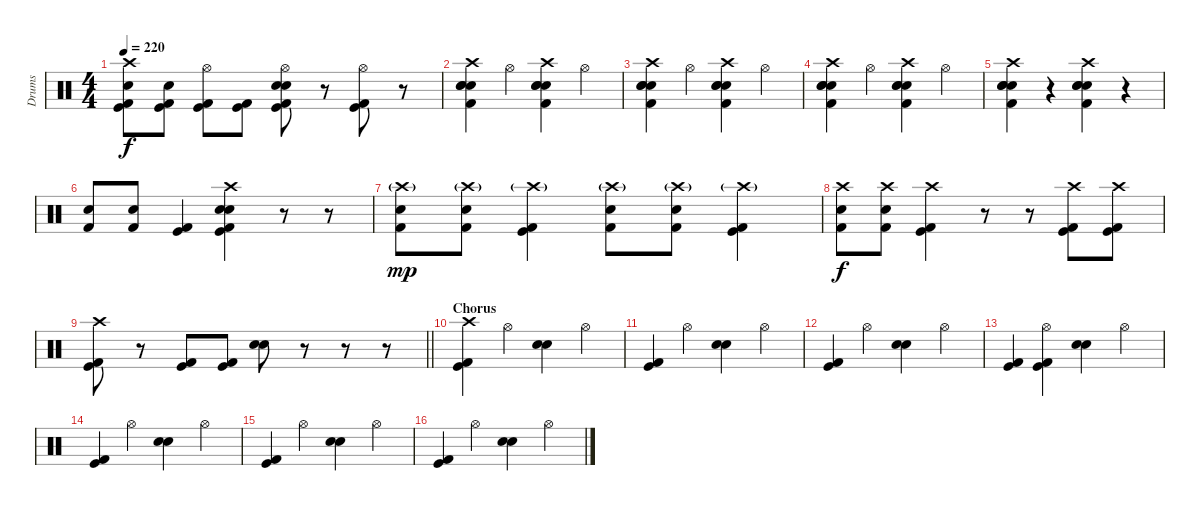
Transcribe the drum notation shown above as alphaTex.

\track ("Drums" "Drums") {instrument percussion}
\staff {score}
\articulation defaults
\ts (4 4)
\tempo 220
\clef neutral
\ks c
("Crash high (hit)" "Snare (hit) 2" "Kick (hit) 2" "Kick (hit)").8{dy f} ("Snare (hit) 2" "Kick (hit) 2" "Kick (hit)").8 ("Hi-Hat (open)" "Kick (hit) 2" "Kick (hit)").8 ("Kick (hit) 2" "Kick (hit)").8 ("Hi-Hat (open)" "Electric Snare (hit)" "Snare (hit) 2" "Kick (hit) 2" "Kick (hit)").8 r.8 ("Hi-Hat (open)" "Kick (hit) 2" "Kick (hit)").8 r.8 |
("Crash high (hit)" "Snare (hit) 2" "Electric Snare (hit)" "Kick (hit) 2" "Snare (hit)").4 "Hi-Hat (open)".4 ("Crash high (hit)" "Snare (hit) 2" "Electric Snare (hit)" "Kick (hit) 2" "Snare (hit)").4 "Hi-Hat (open)".4 |
("Crash high (hit)" "Snare (hit) 2" "Electric Snare (hit)" "Kick (hit) 2" "Snare (hit)").4 "Hi-Hat (open)".4 ("Crash high (hit)" "Snare (hit) 2" "Electric Snare (hit)" "Kick (hit) 2" "Snare (hit)").4 "Hi-Hat (open)".4 |
("Crash high (hit)" "Snare (hit) 2" "Electric Snare (hit)" "Kick (hit) 2" "Snare (hit)").4 "Hi-Hat (open)".4 ("Crash high (hit)" "Snare (hit) 2" "Electric Snare (hit)" "Kick (hit) 2" "Snare (hit)").4 "Hi-Hat (open)".4 |
("Crash high (hit)" "Snare (hit) 2" "Electric Snare (hit)" "Kick (hit) 2" "Snare (hit)").4 r.4 ("Crash high (hit)" "Snare (hit) 2" "Electric Snare (hit)" "Kick (hit) 2" "Snare (hit)").4 r.4 |
("Kick (hit) 2" "Snare (hit)").8 ("Kick (hit) 2" "Snare (hit)").8 ("Kick (hit) 2" "Kick (hit)").4 ("Crash high (hit)" "Snare (hit) 2" "Electric Snare (hit)" "Kick (hit) 2" "Kick (hit)").4 r.8 r.8 |
("Crash high (hit)"{g} "Kick (hit) 2" "Snare (hit)").8{dy mp} ("Crash high (hit)"{g} "Kick (hit) 2" "Snare (hit)").8 ("Crash high (hit)"{g} "Kick (hit) 2" "Kick (hit)").4 ("Crash high (hit)"{g} "Kick (hit) 2" "Snare (hit)").8 ("Crash high (hit)"{g} "Kick (hit) 2" "Snare (hit)").8 ("Crash high (hit)"{g} "Kick (hit) 2" "Kick (hit)").4 |
("Crash high (hit)" "Kick (hit) 2" "Snare (hit)").8{dy f} ("Crash high (hit)" "Kick (hit) 2" "Snare (hit)").8 ("Crash high (hit)" "Kick (hit) 2" "Kick (hit)").4 r.8 r.8 ("Crash high (hit)" "Kick (hit) 2" "Kick (hit)").8 ("Crash high (hit)" "Kick (hit) 2" "Kick (hit)").8 |
\barLineRight lightlight
("Crash high (hit)" "Kick (hit) 2" "Kick (hit)").8 r.8 ("Kick (hit) 2" "Kick (hit)").8 ("Kick (hit) 2" "Kick (hit)").8 ("Electric Snare (hit)" "Snare (hit) 2").8 r.8 r.8 r.8 |
\section ("" "Chorus")
("Crash high (hit)" "Kick (hit) 2" "Kick (hit)").4 "Hi-Hat (open)".4 ("Electric Snare (hit)" "Snare (hit) 2").4 "Hi-Hat (open)".4 |
("Kick (hit) 2" "Kick (hit)").4 "Hi-Hat (open)".4 ("Electric Snare (hit)" "Snare (hit) 2").4 "Hi-Hat (open)".4 |
("Kick (hit) 2" "Kick (hit)").4 "Hi-Hat (open)".4 ("Electric Snare (hit)" "Snare (hit) 2").4 "Hi-Hat (open)".4 |
("Kick (hit) 2" "Kick (hit)").4 ("Hi-Hat (open)" "Kick (hit) 2" "Kick (hit)").4 ("Electric Snare (hit)" "Snare (hit) 2").4 "Hi-Hat (open)".4 |
("Kick (hit) 2" "Kick (hit)").4 "Hi-Hat (open)".4 ("Electric Snare (hit)" "Snare (hit) 2").4 "Hi-Hat (open)".4 |
("Kick (hit) 2" "Kick (hit)").4 "Hi-Hat (open)".4 ("Electric Snare (hit)" "Snare (hit) 2").4 "Hi-Hat (open)".4 |
("Kick (hit) 2" "Kick (hit)").4 "Hi-Hat (open)".4 ("Electric Snare (hit)" "Snare (hit) 2").4 "Hi-Hat (open)".4
